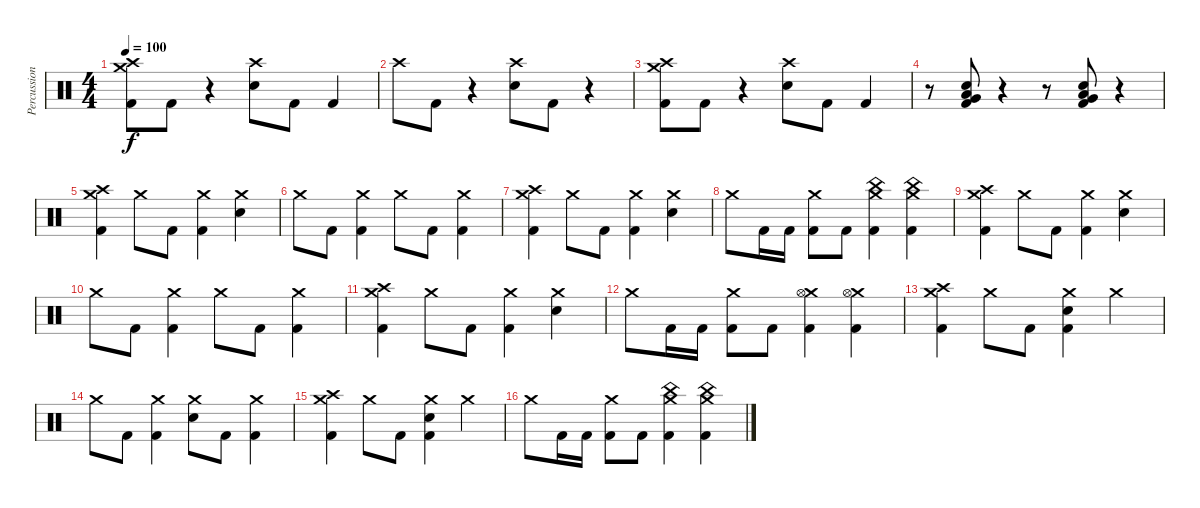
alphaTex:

\track ("Percussion" "Percussion") {instrument percussion}
\staff {score}
\articulation defaults
\ts (4 4)
\tempo 100
\clef neutral
\ks c
("Crash high (hit)" "Crash medium (hit)" "Kick (hit) 2").8{dy f} "Kick (hit) 2".8 r.4 ("Crash high (hit)" "Electric Snare (hit)").8 "Kick (hit) 2".8 "Kick (hit) 2".4 |
"Crash high (hit)".8 "Kick (hit) 2".8 r.4 ("Crash high (hit)" "Electric Snare (hit)").8 "Kick (hit) 2".8 r.4 |
("Crash high (hit)" "Crash medium (hit)" "Kick (hit) 2").8 "Kick (hit) 2".8 r.4 ("Crash high (hit)" "Electric Snare (hit)").8 "Kick (hit) 2".8 "Kick (hit) 2".4 |
r.8 ("Low Floor Tom (hit)" "Very Low Tom (hit)" "Electric Snare (hit)" "Kick (hit) 2").8 r.4 r.8 ("Low Floor Tom (hit)" "Very Low Tom (hit)" "Electric Snare (hit)" "Kick (hit) 2").8 r.4 |
("Crash high (hit)" "Crash medium (hit)" "Kick (hit) 2").4 "Crash medium (hit)".8 "Kick (hit) 2".8 ("Crash medium (hit)" "Kick (hit) 2").4 ("Crash medium (hit)" "Snare (hit) 2").4 |
"Crash medium (hit)".8 "Kick (hit) 2".8 ("Crash medium (hit)" "Kick (hit) 2").4 "Crash medium (hit)".8 "Kick (hit) 2".8 ("Crash medium (hit)" "Kick (hit) 2").4 |
("Crash high (hit)" "Crash medium (hit)" "Kick (hit) 2").4 "Crash medium (hit)".8 "Kick (hit) 2".8 ("Crash medium (hit)" "Kick (hit) 2").4 ("Crash medium (hit)" "Snare (hit) 2").4 |
"Crash medium (hit)".8 "Kick (hit) 2".16 "Kick (hit) 2".16 ("Crash medium (hit)" "Kick (hit) 2").8 "Kick (hit) 2".8 ("Crash medium (hit)" "China (hit)" "Kick (hit) 2").4 ("Crash medium (hit)" "China (hit)" "Kick (hit) 2").4 |
("Crash high (hit)" "Crash medium (hit)" "Kick (hit) 2").4 "Crash medium (hit)".8 "Kick (hit) 2".8 ("Crash medium (hit)" "Kick (hit) 2").4 ("Crash medium (hit)" "Snare (hit) 2").4 |
"Crash medium (hit)".8 "Kick (hit) 2".8 ("Crash medium (hit)" "Kick (hit) 2").4 "Crash medium (hit)".8 "Kick (hit) 2".8 ("Crash medium (hit)" "Kick (hit) 2").4 |
("Crash high (hit)" "Crash medium (hit)" "Kick (hit) 2").4 "Crash medium (hit)".8 "Kick (hit) 2".8 ("Crash medium (hit)" "Kick (hit) 2").4 ("Crash medium (hit)" "Snare (hit) 2").4 |
"Crash medium (hit)".8 "Kick (hit) 2".16 "Kick (hit) 2".16 ("Crash medium (hit)" "Kick (hit) 2").8 "Kick (hit) 2".8 ("Crash medium (hit)" "Hi-Hat (open)" "Kick (hit) 2").4 ("Crash medium (hit)" "Hi-Hat (open)" "Kick (hit) 2").4 |
("Crash high (hit)" "Crash medium (hit)" "Kick (hit) 2").4 "Crash medium (hit)".8 "Kick (hit) 2".8 ("Crash medium (hit)" "Snare (hit) 2" "Kick (hit) 2").4 "Crash medium (hit)".4 |
"Crash medium (hit)".8 "Kick (hit) 2".8 ("Crash medium (hit)" "Kick (hit) 2").4 ("Crash medium (hit)" "Snare (hit) 2").8 "Kick (hit) 2".8 ("Crash medium (hit)" "Kick (hit) 2").4 |
("Crash high (hit)" "Crash medium (hit)" "Kick (hit) 2").4 "Crash medium (hit)".8 "Kick (hit) 2".8 ("Crash medium (hit)" "Snare (hit) 2" "Kick (hit) 2").4 "Crash medium (hit)".4 |
"Crash medium (hit)".8 "Kick (hit) 2".16 "Kick (hit) 2".16 ("Crash medium (hit)" "Kick (hit) 2").8 "Kick (hit) 2".8 ("Crash medium (hit)" "China (hit)" "Kick (hit) 2").4 ("Crash medium (hit)" "China (hit)" "Kick (hit) 2").4
